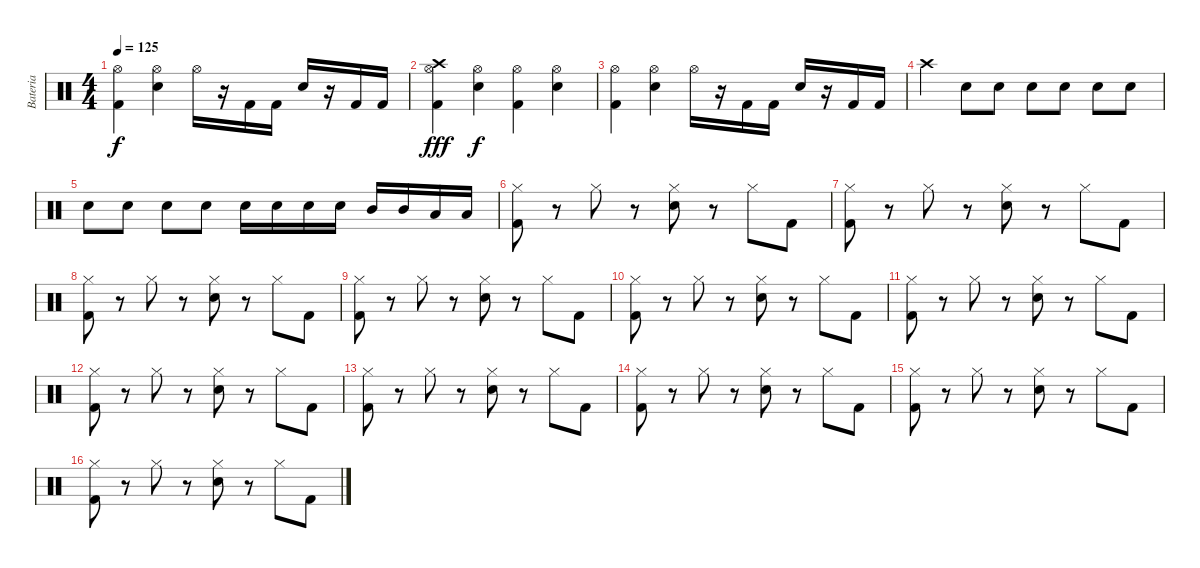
\track ("Bateria" "Bateria") {instrument percussion}
\staff {score}
\articulation defaults
\ts (4 4)
\tempo 125
\clef neutral
\ks c
("Hi-Hat (open)" "Kick (hit) 2").4{dy f} ("Hi-Hat (open)" "Snare (hit) 2").4 "Hi-Hat (open)".16 r.16 "Kick (hit) 2".16 "Kick (hit) 2".16 "Snare (hit) 2".16 r.16 "Kick (hit) 2".16 "Kick (hit) 2".16 |
("Hi-Hat (open)" "Kick (hit) 2" "Crash high (hit)").4{dy fff} ("Hi-Hat (open)" "Snare (hit) 2").4{dy f} ("Hi-Hat (open)" "Kick (hit) 2").4 ("Hi-Hat (open)" "Snare (hit) 2").4 |
("Hi-Hat (open)" "Kick (hit) 2").4 ("Hi-Hat (open)" "Snare (hit) 2").4 "Hi-Hat (open)".16 r.16 "Kick (hit) 2".16 "Kick (hit) 2".16 "Snare (hit) 2".16 r.16 "Kick (hit) 2".16 "Kick (hit) 2".16 |
"Crash high (hit)".4 "Snare (hit) 2".8 "Snare (hit) 2".8 "Snare (hit) 2".8 "Snare (hit) 2".8 "Snare (hit) 2".8 "Snare (hit) 2".8 |
"Snare (hit) 2".8 "Snare (hit) 2".8 "Snare (hit) 2".8 "Snare (hit) 2".8 "Snare (hit) 2".16 "Snare (hit) 2".16 "Snare (hit) 2".16 "Snare (hit) 2".16 "Mid Tom (hit)".16 "Mid Tom (hit)".16 "Low Tom (hit)".16 "Low Tom (hit)".16 |
("Hi-Hat (closed)" "Kick (hit) 2").8 r.8 "Hi-Hat (closed)".8 r.8 ("Hi-Hat (closed)" "Snare (hit) 2").8 r.8 "Hi-Hat (closed)".8 "Kick (hit) 2".8 |
("Hi-Hat (closed)" "Kick (hit) 2").8 r.8 "Hi-Hat (closed)".8 r.8 ("Hi-Hat (closed)" "Snare (hit) 2").8 r.8 "Hi-Hat (closed)".8 "Kick (hit) 2".8 |
("Hi-Hat (closed)" "Kick (hit) 2").8 r.8 "Hi-Hat (closed)".8 r.8 ("Hi-Hat (closed)" "Snare (hit) 2").8 r.8 "Hi-Hat (closed)".8 "Kick (hit) 2".8 |
("Hi-Hat (closed)" "Kick (hit) 2").8 r.8 "Hi-Hat (closed)".8 r.8 ("Hi-Hat (closed)" "Snare (hit) 2").8 r.8 "Hi-Hat (closed)".8 "Kick (hit) 2".8 |
("Hi-Hat (closed)" "Kick (hit) 2").8 r.8 "Hi-Hat (closed)".8 r.8 ("Hi-Hat (closed)" "Snare (hit) 2").8 r.8 "Hi-Hat (closed)".8 "Kick (hit) 2".8 |
("Hi-Hat (closed)" "Kick (hit) 2").8 r.8 "Hi-Hat (closed)".8 r.8 ("Hi-Hat (closed)" "Snare (hit) 2").8 r.8 "Hi-Hat (closed)".8 "Kick (hit) 2".8 |
("Hi-Hat (closed)" "Kick (hit) 2").8 r.8 "Hi-Hat (closed)".8 r.8 ("Hi-Hat (closed)" "Snare (hit) 2").8 r.8 "Hi-Hat (closed)".8 "Kick (hit) 2".8 |
("Hi-Hat (closed)" "Kick (hit) 2").8 r.8 "Hi-Hat (closed)".8 r.8 ("Hi-Hat (closed)" "Snare (hit) 2").8 r.8 "Hi-Hat (closed)".8 "Kick (hit) 2".8 |
("Hi-Hat (closed)" "Kick (hit) 2").8 r.8 "Hi-Hat (closed)".8 r.8 ("Hi-Hat (closed)" "Snare (hit) 2").8 r.8 "Hi-Hat (closed)".8 "Kick (hit) 2".8 |
("Hi-Hat (closed)" "Kick (hit) 2").8 r.8 "Hi-Hat (closed)".8 r.8 ("Hi-Hat (closed)" "Snare (hit) 2").8 r.8 "Hi-Hat (closed)".8 "Kick (hit) 2".8 |
("Hi-Hat (closed)" "Kick (hit) 2").8 r.8 "Hi-Hat (closed)".8 r.8 ("Hi-Hat (closed)" "Snare (hit) 2").8 r.8 "Hi-Hat (closed)".8 "Kick (hit) 2".8
